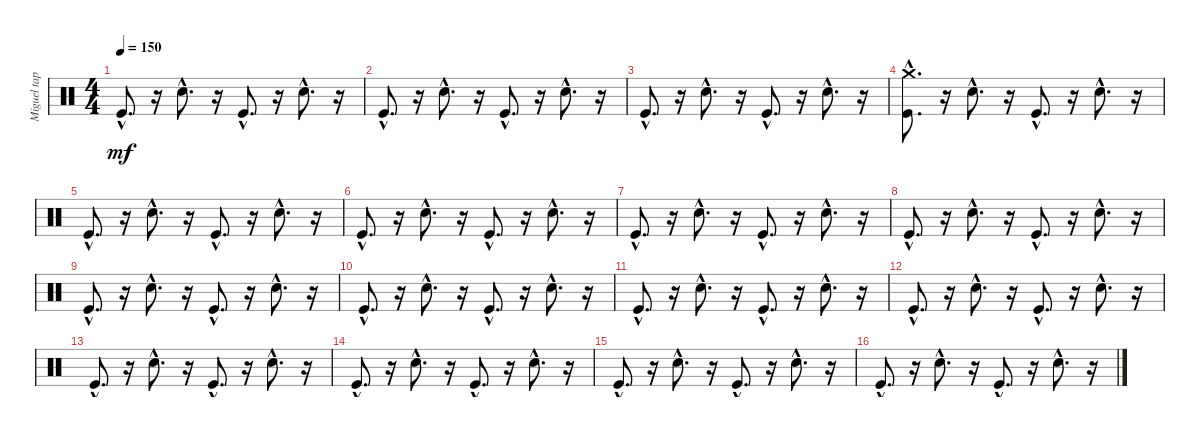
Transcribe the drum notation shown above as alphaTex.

\track ("Miguel tapia" "Miguel tap") {instrument percussion}
\staff {score}
\articulation defaults
\ts (4 4)
\tempo 150
\clef neutral
\ks c "Kick (hit)"{hac}.8{d dy mf}
r.16 "Electric Snare (hit)"{hac}.8{d} r.16 "Kick (hit)"{hac}.8{d} r.16 "Electric Snare (hit)"{hac}.8{d} r.16 |
"Kick (hit)"{hac}.8{d} r.16 "Electric Snare (hit)"{hac}.8{d} r.16 "Kick (hit)"{hac}.8{d} r.16 "Electric Snare (hit)"{hac}.8{d} r.16 |
"Kick (hit)"{hac}.8{d} r.16 "Electric Snare (hit)"{hac}.8{d} r.16 "Kick (hit)"{hac}.8{d} r.16 "Electric Snare (hit)"{hac}.8{d} r.16 |
("Crash medium (hit)"{hac} "Kick (hit)"{hac}).8{d} r.16 "Electric Snare (hit)"{hac}.8{d} r.16 "Kick (hit)"{hac}.8{d} r.16 "Electric Snare (hit)"{hac}.8{d} r.16 |
"Kick (hit)"{hac}.8{d} r.16 "Electric Snare (hit)"{hac}.8{d} r.16 "Kick (hit)"{hac}.8{d} r.16 "Electric Snare (hit)"{hac}.8{d} r.16 |
"Kick (hit)"{hac}.8{d} r.16 "Electric Snare (hit)"{hac}.8{d} r.16 "Kick (hit)"{hac}.8{d} r.16 "Electric Snare (hit)"{hac}.8{d} r.16 |
"Kick (hit)"{hac}.8{d} r.16 "Electric Snare (hit)"{hac}.8{d} r.16 "Kick (hit)"{hac}.8{d} r.16 "Electric Snare (hit)"{hac}.8{d} r.16 |
"Kick (hit)"{hac}.8{d} r.16 "Electric Snare (hit)"{hac}.8{d} r.16 "Kick (hit)"{hac}.8{d} r.16 "Electric Snare (hit)"{hac}.8{d} r.16 |
"Kick (hit)"{hac}.8{d} r.16 "Electric Snare (hit)"{hac}.8{d} r.16 "Kick (hit)"{hac}.8{d} r.16 "Electric Snare (hit)"{hac}.8{d} r.16 |
"Kick (hit)"{hac}.8{d} r.16 "Electric Snare (hit)"{hac}.8{d} r.16 "Kick (hit)"{hac}.8{d} r.16 "Electric Snare (hit)"{hac}.8{d} r.16 |
"Kick (hit)"{hac}.8{d} r.16 "Electric Snare (hit)"{hac}.8{d} r.16 "Kick (hit)"{hac}.8{d} r.16 "Electric Snare (hit)"{hac}.8{d} r.16 |
"Kick (hit)"{hac}.8{d} r.16 "Electric Snare (hit)"{hac}.8{d} r.16 "Kick (hit)"{hac}.8{d} r.16 "Electric Snare (hit)"{hac}.8{d} r.16 |
"Kick (hit)"{hac}.8{d} r.16 "Electric Snare (hit)"{hac}.8{d} r.16 "Kick (hit)"{hac}.8{d} r.16 "Electric Snare (hit)"{hac}.8{d} r.16 |
"Kick (hit)"{hac}.8{d} r.16 "Electric Snare (hit)"{hac}.8{d} r.16 "Kick (hit)"{hac}.8{d} r.16 "Electric Snare (hit)"{hac}.8{d} r.16 |
"Kick (hit)"{hac}.8{d} r.16 "Electric Snare (hit)"{hac}.8{d} r.16 "Kick (hit)"{hac}.8{d} r.16 "Electric Snare (hit)"{hac}.8{d} r.16 |
"Kick (hit)"{hac}.8{d} r.16 "Electric Snare (hit)"{hac}.8{d} r.16 "Kick (hit)"{hac}.8{d} r.16 "Electric Snare (hit)"{hac}.8{d} r.16
